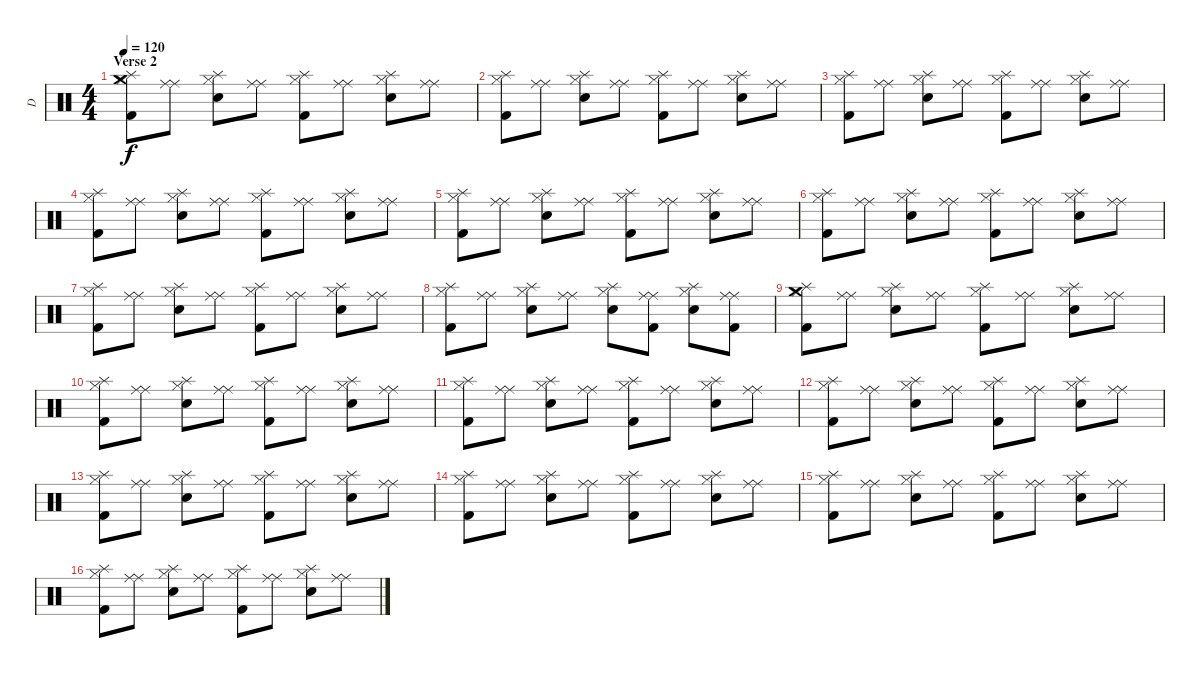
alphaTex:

\track ("D" "D") {instrument percussion}
\staff {score}
\articulation defaults
\ts (4 4)
\section ("" "Verse 2")
\tempo 120
\clef neutral
\ks c
("Crash medium (hit)" "Kick (hit) 2" "Splash (hit)" "Hi-Hat (closed)").8{dy f} ("Ride (middle)" "Ride (middle)").8 ("Electric Snare (hit)" "Splash (hit)" "Hi-Hat (closed)").8 ("Ride (middle)" "Ride (middle)").8 ("Kick (hit) 2" "Splash (hit)" "Hi-Hat (closed)").8 ("Ride (middle)" "Ride (middle)").8 ("Electric Snare (hit)" "Splash (hit)" "Hi-Hat (closed)").8 ("Ride (middle)" "Ride (middle)").8 |
("Kick (hit) 2" "Splash (hit)" "Hi-Hat (closed)").8 ("Ride (middle)" "Ride (middle)").8 ("Electric Snare (hit)" "Splash (hit)" "Hi-Hat (closed)").8 ("Ride (middle)" "Ride (middle)").8 ("Kick (hit) 2" "Splash (hit)" "Hi-Hat (closed)").8 ("Ride (middle)" "Ride (middle)").8 ("Electric Snare (hit)" "Splash (hit)" "Hi-Hat (closed)").8 ("Ride (middle)" "Ride (middle)").8 |
("Kick (hit) 2" "Splash (hit)" "Hi-Hat (closed)").8 ("Ride (middle)" "Ride (middle)").8 ("Electric Snare (hit)" "Splash (hit)" "Hi-Hat (closed)").8 ("Ride (middle)" "Ride (middle)").8 ("Kick (hit) 2" "Splash (hit)" "Hi-Hat (closed)").8 ("Ride (middle)" "Ride (middle)").8 ("Electric Snare (hit)" "Splash (hit)" "Hi-Hat (closed)").8 ("Ride (middle)" "Ride (middle)").8 |
("Kick (hit) 2" "Splash (hit)" "Hi-Hat (closed)").8 ("Ride (middle)" "Ride (middle)").8 ("Electric Snare (hit)" "Splash (hit)" "Hi-Hat (closed)").8 ("Ride (middle)" "Ride (middle)").8 ("Kick (hit) 2" "Splash (hit)" "Hi-Hat (closed)").8 ("Ride (middle)" "Ride (middle)").8 ("Electric Snare (hit)" "Splash (hit)" "Hi-Hat (closed)").8 ("Ride (middle)" "Ride (middle)").8 |
("Kick (hit) 2" "Splash (hit)" "Hi-Hat (closed)").8 ("Ride (middle)" "Ride (middle)").8 ("Electric Snare (hit)" "Splash (hit)" "Hi-Hat (closed)").8 ("Ride (middle)" "Ride (middle)").8 ("Kick (hit) 2" "Splash (hit)" "Hi-Hat (closed)").8 ("Ride (middle)" "Ride (middle)").8 ("Electric Snare (hit)" "Splash (hit)" "Hi-Hat (closed)").8 ("Ride (middle)" "Ride (middle)").8 |
("Kick (hit) 2" "Splash (hit)" "Hi-Hat (closed)").8 ("Ride (middle)" "Ride (middle)").8 ("Electric Snare (hit)" "Splash (hit)" "Hi-Hat (closed)").8 ("Ride (middle)" "Ride (middle)").8 ("Kick (hit) 2" "Splash (hit)" "Hi-Hat (closed)").8 ("Ride (middle)" "Ride (middle)").8 ("Electric Snare (hit)" "Splash (hit)" "Hi-Hat (closed)").8 ("Ride (middle)" "Ride (middle)").8 |
("Kick (hit) 2" "Splash (hit)" "Hi-Hat (closed)").8 ("Ride (middle)" "Ride (middle)").8 ("Electric Snare (hit)" "Splash (hit)" "Hi-Hat (closed)").8 ("Ride (middle)" "Ride (middle)").8 ("Kick (hit) 2" "Splash (hit)" "Hi-Hat (closed)").8 ("Ride (middle)" "Ride (middle)").8 ("Electric Snare (hit)" "Splash (hit)" "Hi-Hat (closed)").8 ("Ride (middle)" "Ride (middle)").8 |
("Kick (hit) 2" "Splash (hit)" "Hi-Hat (closed)").8 ("Ride (middle)" "Ride (middle)").8 ("Electric Snare (hit)" "Splash (hit)" "Hi-Hat (closed)").8 ("Ride (middle)" "Ride (middle)").8 ("Electric Snare (hit)" "Splash (hit)" "Hi-Hat (closed)").8 ("Kick (hit) 2" "Ride (middle)" "Ride (middle)").8 ("Electric Snare (hit)" "Splash (hit)" "Hi-Hat (closed)").8 ("Kick (hit) 2" "Ride (middle)" "Ride (middle)").8 |
("Crash medium (hit)" "Kick (hit) 2" "Splash (hit)" "Hi-Hat (closed)").8 ("Ride (middle)" "Ride (middle)").8 ("Electric Snare (hit)" "Splash (hit)" "Hi-Hat (closed)").8 ("Ride (middle)" "Ride (middle)").8 ("Kick (hit) 2" "Splash (hit)" "Hi-Hat (closed)").8 ("Ride (middle)" "Ride (middle)").8 ("Electric Snare (hit)" "Splash (hit)" "Hi-Hat (closed)").8 ("Ride (middle)" "Ride (middle)").8 |
("Kick (hit) 2" "Splash (hit)" "Hi-Hat (closed)").8 ("Ride (middle)" "Ride (middle)").8 ("Electric Snare (hit)" "Splash (hit)" "Hi-Hat (closed)").8 ("Ride (middle)" "Ride (middle)").8 ("Kick (hit) 2" "Splash (hit)" "Hi-Hat (closed)").8 ("Ride (middle)" "Ride (middle)").8 ("Electric Snare (hit)" "Splash (hit)" "Hi-Hat (closed)").8 ("Ride (middle)" "Ride (middle)").8 |
("Kick (hit) 2" "Splash (hit)" "Hi-Hat (closed)").8 ("Ride (middle)" "Ride (middle)").8 ("Electric Snare (hit)" "Splash (hit)" "Hi-Hat (closed)").8 ("Ride (middle)" "Ride (middle)").8 ("Kick (hit) 2" "Splash (hit)" "Hi-Hat (closed)").8 ("Ride (middle)" "Ride (middle)").8 ("Electric Snare (hit)" "Splash (hit)" "Hi-Hat (closed)").8 ("Ride (middle)" "Ride (middle)").8 |
("Kick (hit) 2" "Splash (hit)" "Hi-Hat (closed)").8 ("Ride (middle)" "Ride (middle)").8 ("Electric Snare (hit)" "Splash (hit)" "Hi-Hat (closed)").8 ("Ride (middle)" "Ride (middle)").8 ("Kick (hit) 2" "Splash (hit)" "Hi-Hat (closed)").8 ("Ride (middle)" "Ride (middle)").8 ("Electric Snare (hit)" "Splash (hit)" "Hi-Hat (closed)").8 ("Ride (middle)" "Ride (middle)").8 |
("Kick (hit) 2" "Splash (hit)" "Hi-Hat (closed)").8 ("Ride (middle)" "Ride (middle)").8 ("Electric Snare (hit)" "Splash (hit)" "Hi-Hat (closed)").8 ("Ride (middle)" "Ride (middle)").8 ("Kick (hit) 2" "Splash (hit)" "Hi-Hat (closed)").8 ("Ride (middle)" "Ride (middle)").8 ("Electric Snare (hit)" "Splash (hit)" "Hi-Hat (closed)").8 ("Ride (middle)" "Ride (middle)").8 |
("Kick (hit) 2" "Splash (hit)" "Hi-Hat (closed)").8 ("Ride (middle)" "Ride (middle)").8 ("Electric Snare (hit)" "Splash (hit)" "Hi-Hat (closed)").8 ("Ride (middle)" "Ride (middle)").8 ("Kick (hit) 2" "Splash (hit)" "Hi-Hat (closed)").8 ("Ride (middle)" "Ride (middle)").8 ("Electric Snare (hit)" "Splash (hit)" "Hi-Hat (closed)").8 ("Ride (middle)" "Ride (middle)").8 |
("Kick (hit) 2" "Splash (hit)" "Hi-Hat (closed)").8 ("Ride (middle)" "Ride (middle)").8 ("Electric Snare (hit)" "Splash (hit)" "Hi-Hat (closed)").8 ("Ride (middle)" "Ride (middle)").8 ("Kick (hit) 2" "Splash (hit)" "Hi-Hat (closed)").8 ("Ride (middle)" "Ride (middle)").8 ("Electric Snare (hit)" "Splash (hit)" "Hi-Hat (closed)").8 ("Ride (middle)" "Ride (middle)").8 |
("Kick (hit) 2" "Splash (hit)" "Hi-Hat (closed)").8 ("Ride (middle)" "Ride (middle)").8 ("Electric Snare (hit)" "Splash (hit)" "Hi-Hat (closed)").8 ("Ride (middle)" "Ride (middle)").8 ("Kick (hit) 2" "Splash (hit)" "Hi-Hat (closed)").8 ("Ride (middle)" "Ride (middle)").8 ("Electric Snare (hit)" "Splash (hit)" "Hi-Hat (closed)").8 ("Ride (middle)" "Ride (middle)").8
